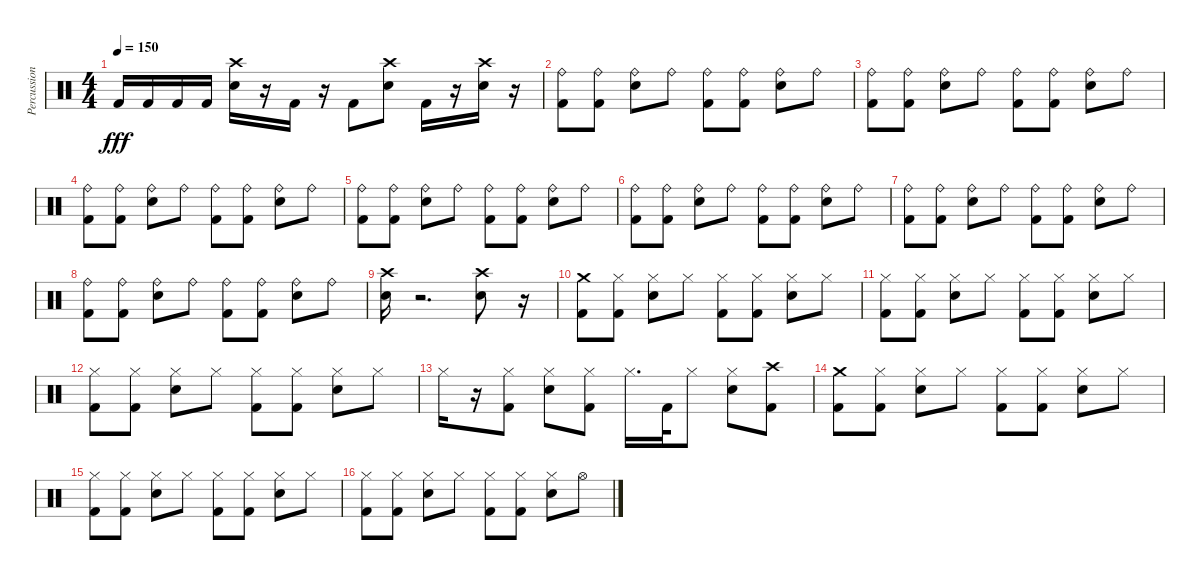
\track ("Percussion" "Percussion") {instrument percussion}
\staff {score}
\articulation defaults
\ts (4 4)
\tempo 150
\clef neutral
\ks c "Kick (hit) 2".16{dy fff} "Kick (hit) 2".16 "Kick (hit) 2".16 "Kick (hit) 2".16
("Snare (hit) 2" "Crash high (hit)").16 r.16 "Kick (hit) 2".16 r.16 "Kick (hit) 2".8 ("Snare (hit) 2" "Crash high (hit)").8 "Kick (hit) 2".16 r.16 ("Snare (hit) 2" "Crash high (hit)").16 r.16 |
("Kick (hit) 2" "Ride (bell)").8 ("Kick (hit) 2" "Ride (bell)").8 ("Snare (hit) 2" "Ride (bell)").8 "Ride (bell)".8 ("Kick (hit) 2" "Ride (bell)").8 ("Kick (hit) 2" "Ride (bell)").8 ("Snare (hit) 2" "Ride (bell)").8 "Ride (bell)".8 |
("Ride (bell)" "Kick (hit) 2").8 ("Kick (hit) 2" "Ride (bell)").8 ("Snare (hit) 2" "Ride (bell)").8 "Ride (bell)".8 ("Kick (hit) 2" "Ride (bell)").8 ("Kick (hit) 2" "Ride (bell)").8 ("Snare (hit) 2" "Ride (bell)").8 "Ride (bell)".8 |
("Ride (bell)" "Kick (hit) 2").8 ("Kick (hit) 2" "Ride (bell)").8 ("Snare (hit) 2" "Ride (bell)").8 "Ride (bell)".8 ("Kick (hit) 2" "Ride (bell)").8 ("Kick (hit) 2" "Ride (bell)").8 ("Snare (hit) 2" "Ride (bell)").8 "Ride (bell)".8 |
("Ride (bell)" "Kick (hit) 2").8 ("Kick (hit) 2" "Ride (bell)").8 ("Snare (hit) 2" "Ride (bell)").8 "Ride (bell)".8 ("Kick (hit) 2" "Ride (bell)").8 ("Kick (hit) 2" "Ride (bell)").8 ("Snare (hit) 2" "Ride (bell)").8 "Ride (bell)".8 |
("Ride (bell)" "Kick (hit) 2").8 ("Kick (hit) 2" "Ride (bell)").8 ("Snare (hit) 2" "Ride (bell)").8 "Ride (bell)".8 ("Kick (hit) 2" "Ride (bell)").8 ("Kick (hit) 2" "Ride (bell)").8 ("Snare (hit) 2" "Ride (bell)").8 "Ride (bell)".8 |
("Kick (hit) 2" "Ride (bell)").8 ("Kick (hit) 2" "Ride (bell)").8 ("Snare (hit) 2" "Ride (bell)").8 "Ride (bell)".8 ("Kick (hit) 2" "Ride (bell)").8 ("Kick (hit) 2" "Ride (bell)").8 ("Snare (hit) 2" "Ride (bell)").8 "Ride (bell)".8 |
("Kick (hit) 2" "Ride (bell)").8 ("Kick (hit) 2" "Ride (bell)").8 ("Snare (hit) 2" "Ride (bell)").8 "Ride (bell)".8 ("Kick (hit) 2" "Ride (bell)").8 ("Kick (hit) 2" "Ride (bell)").8 ("Snare (hit) 2" "Ride (bell)").8 "Ride (bell)".8 |
("Snare (hit) 2" "Crash high (hit)").16 r.2{d} ("Crash high (hit)" "Snare (hit) 2").8 r.16 |
("Kick (hit) 2" "Crash medium (hit)").8 ("Hi-Hat (closed)" "Kick (hit) 2").8 ("Snare (hit) 2" "Hi-Hat (closed)").8 "Hi-Hat (closed)".8 ("Kick (hit) 2" "Hi-Hat (closed)").8 ("Hi-Hat (closed)" "Kick (hit) 2").8 ("Snare (hit) 2" "Hi-Hat (closed)").8 "Hi-Hat (closed)".8 |
("Kick (hit) 2" "Hi-Hat (closed)").8 ("Hi-Hat (closed)" "Kick (hit) 2").8 ("Snare (hit) 2" "Hi-Hat (closed)").8 "Hi-Hat (closed)".8 ("Kick (hit) 2" "Hi-Hat (closed)").8 ("Hi-Hat (closed)" "Kick (hit) 2").8 ("Snare (hit) 2" "Hi-Hat (closed)").8 "Hi-Hat (closed)".8 |
("Kick (hit) 2" "Hi-Hat (closed)").8 ("Kick (hit) 2" "Hi-Hat (closed)").8 ("Snare (hit) 2" "Hi-Hat (closed)").8 "Hi-Hat (closed)".8 ("Kick (hit) 2" "Hi-Hat (closed)").8 ("Kick (hit) 2" "Hi-Hat (closed)").8 ("Snare (hit) 2" "Hi-Hat (closed)").8 "Hi-Hat (closed)".8 |
"Hi-Hat (closed)".16 r.16 ("Kick (hit) 2" "Hi-Hat (closed)").8 ("Snare (hit) 2" "Hi-Hat (closed)").8 ("Hi-Hat (closed)" "Kick (hit) 2").8 "Hi-Hat (closed)".16{d} "Kick (hit) 2".32 "Hi-Hat (closed)".8 ("Snare (hit) 2" "Hi-Hat (closed)").8 ("Kick (hit) 2" "Crash high (hit)").8 |
("Kick (hit) 2" "Crash medium (hit)").8 ("Kick (hit) 2" "Hi-Hat (closed)").8 ("Snare (hit) 2" "Hi-Hat (closed)").8 "Hi-Hat (closed)".8 ("Kick (hit) 2" "Hi-Hat (closed)").8 ("Kick (hit) 2" "Hi-Hat (closed)").8 ("Snare (hit) 2" "Hi-Hat (closed)").8 "Hi-Hat (closed)".8 |
("Kick (hit) 2" "Hi-Hat (closed)").8 ("Kick (hit) 2" "Hi-Hat (closed)").8 ("Snare (hit) 2" "Hi-Hat (closed)").8 "Hi-Hat (closed)".8 ("Kick (hit) 2" "Hi-Hat (closed)").8 ("Kick (hit) 2" "Hi-Hat (closed)").8 ("Snare (hit) 2" "Hi-Hat (closed)").8 "Hi-Hat (closed)".8 |
("Hi-Hat (closed)" "Kick (hit) 2").8 ("Kick (hit) 2" "Hi-Hat (closed)").8 ("Snare (hit) 2" "Hi-Hat (closed)").8 "Hi-Hat (closed)".8 ("Kick (hit) 2" "Hi-Hat (closed)").8 ("Kick (hit) 2" "Hi-Hat (closed)").8 ("Snare (hit) 2" "Hi-Hat (closed)").8 "Hi-Hat (open)".8
